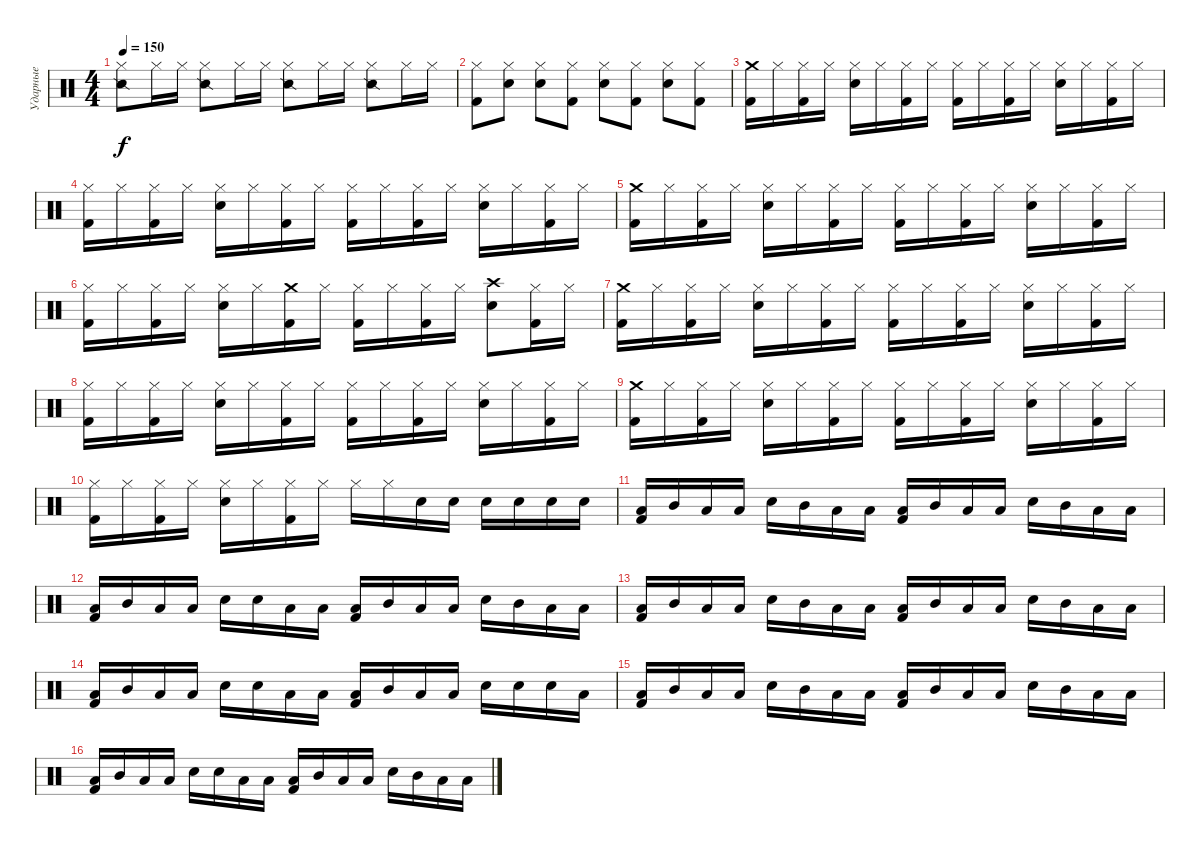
\track ("Ударные" "Ударные") {instrument percussion}
\staff {score}
\articulation defaults
\ts (4 4)
\tempo 150
\clef neutral
\ks c
("Hi-Hat (closed)" "Snare (side stick) 2").8{dy f} "Hi-Hat (closed)".16 "Hi-Hat (closed)".16 ("Hi-Hat (closed)" "Snare (side stick) 2").8 "Hi-Hat (closed)".16 "Hi-Hat (closed)".16 ("Hi-Hat (closed)" "Snare (side stick) 2").8 "Hi-Hat (closed)".16 "Hi-Hat (closed)".16 ("Hi-Hat (closed)" "Snare (side stick) 2").8 "Hi-Hat (closed)".16 "Hi-Hat (closed)".16 |
("Hi-Hat (closed)" "Kick (hit) 2").8 ("Hi-Hat (closed)" "Electric Snare (hit)").8 ("Hi-Hat (closed)" "Electric Snare (hit)").8 ("Hi-Hat (closed)" "Kick (hit) 2").8 ("Hi-Hat (closed)" "Electric Snare (hit)").8 ("Hi-Hat (closed)" "Kick (hit) 2").8 ("Hi-Hat (closed)" "Electric Snare (hit)").8 ("Hi-Hat (closed)" "Kick (hit) 2").8 |
("Crash medium (hit)" "Kick (hit) 2").16 "Hi-Hat (closed)".16 ("Hi-Hat (closed)" "Kick (hit) 2").16 "Hi-Hat (closed)".16 ("Hi-Hat (closed)" "Electric Snare (hit)").16 "Hi-Hat (closed)".16 ("Hi-Hat (closed)" "Kick (hit) 2").16 "Hi-Hat (closed)".16 ("Hi-Hat (closed)" "Kick (hit) 2").16 "Hi-Hat (closed)".16 ("Hi-Hat (closed)" "Kick (hit) 2").16 "Hi-Hat (closed)".16 ("Hi-Hat (closed)" "Electric Snare (hit)").16 "Hi-Hat (closed)".16 ("Hi-Hat (closed)" "Kick (hit) 2").16 "Hi-Hat (closed)".16 |
("Hi-Hat (closed)" "Kick (hit) 2").16 "Hi-Hat (closed)".16 ("Hi-Hat (closed)" "Kick (hit) 2").16 "Hi-Hat (closed)".16 ("Hi-Hat (closed)" "Electric Snare (hit)").16 "Hi-Hat (closed)".16 ("Hi-Hat (closed)" "Kick (hit) 2").16 "Hi-Hat (closed)".16 ("Hi-Hat (closed)" "Kick (hit) 2").16 "Hi-Hat (closed)".16 ("Hi-Hat (closed)" "Kick (hit) 2").16 "Hi-Hat (closed)".16 ("Hi-Hat (closed)" "Electric Snare (hit)").16 "Hi-Hat (closed)".16 ("Hi-Hat (closed)" "Kick (hit) 2").16 "Hi-Hat (closed)".16 |
("Crash medium (hit)" "Kick (hit) 2").16 "Hi-Hat (closed)".16 ("Hi-Hat (closed)" "Kick (hit) 2").16 "Hi-Hat (closed)".16 ("Hi-Hat (closed)" "Electric Snare (hit)").16 "Hi-Hat (closed)".16 ("Hi-Hat (closed)" "Kick (hit) 2").16 "Hi-Hat (closed)".16 ("Hi-Hat (closed)" "Kick (hit) 2").16 "Hi-Hat (closed)".16 ("Hi-Hat (closed)" "Kick (hit) 2").16 "Hi-Hat (closed)".16 ("Hi-Hat (closed)" "Electric Snare (hit)").16 "Hi-Hat (closed)".16 ("Hi-Hat (closed)" "Kick (hit) 2").16 "Hi-Hat (closed)".16 |
("Hi-Hat (closed)" "Kick (hit) 2").16 "Hi-Hat (closed)".16 ("Hi-Hat (closed)" "Kick (hit) 2").16 "Hi-Hat (closed)".16 ("Hi-Hat (closed)" "Electric Snare (hit)").16 "Hi-Hat (closed)".16 ("Crash medium (hit)" "Kick (hit) 2").16 "Hi-Hat (closed)".16 ("Hi-Hat (closed)" "Kick (hit) 2").16 "Hi-Hat (closed)".16 ("Hi-Hat (closed)" "Kick (hit) 2").16 "Hi-Hat (closed)".16 ("Crash high (hit)" "Electric Snare (hit)").8 ("Hi-Hat (closed)" "Kick (hit) 2").16 "Hi-Hat (closed)".16 |
("Crash medium (hit)" "Kick (hit) 2").16 "Hi-Hat (closed)".16 ("Hi-Hat (closed)" "Kick (hit) 2").16 "Hi-Hat (closed)".16 ("Hi-Hat (closed)" "Electric Snare (hit)").16 "Hi-Hat (closed)".16 ("Hi-Hat (closed)" "Kick (hit) 2").16 "Hi-Hat (closed)".16 ("Hi-Hat (closed)" "Kick (hit) 2").16 "Hi-Hat (closed)".16 ("Hi-Hat (closed)" "Kick (hit) 2").16 "Hi-Hat (closed)".16 ("Hi-Hat (closed)" "Electric Snare (hit)").16 "Hi-Hat (closed)".16 ("Hi-Hat (closed)" "Kick (hit) 2").16 "Hi-Hat (closed)".16 |
("Hi-Hat (closed)" "Kick (hit) 2").16 "Hi-Hat (closed)".16 ("Hi-Hat (closed)" "Kick (hit) 2").16 "Hi-Hat (closed)".16 ("Hi-Hat (closed)" "Electric Snare (hit)").16 "Hi-Hat (closed)".16 ("Hi-Hat (closed)" "Kick (hit) 2").16 "Hi-Hat (closed)".16 ("Hi-Hat (closed)" "Kick (hit) 2").16 "Hi-Hat (closed)".16 ("Hi-Hat (closed)" "Kick (hit) 2").16 "Hi-Hat (closed)".16 ("Hi-Hat (closed)" "Electric Snare (hit)").16 "Hi-Hat (closed)".16 ("Hi-Hat (closed)" "Kick (hit) 2").16 "Hi-Hat (closed)".16 |
("Crash medium (hit)" "Kick (hit) 2").16 "Hi-Hat (closed)".16 ("Hi-Hat (closed)" "Kick (hit) 2").16 "Hi-Hat (closed)".16 ("Hi-Hat (closed)" "Electric Snare (hit)").16 "Hi-Hat (closed)".16 ("Hi-Hat (closed)" "Kick (hit) 2").16 "Hi-Hat (closed)".16 ("Hi-Hat (closed)" "Kick (hit) 2").16 "Hi-Hat (closed)".16 ("Hi-Hat (closed)" "Kick (hit) 2").16 "Hi-Hat (closed)".16 ("Hi-Hat (closed)" "Electric Snare (hit)").16 "Hi-Hat (closed)".16 ("Hi-Hat (closed)" "Kick (hit) 2").16 "Hi-Hat (closed)".16 |
("Hi-Hat (closed)" "Kick (hit) 2").16 "Hi-Hat (closed)".16 ("Hi-Hat (closed)" "Kick (hit) 2").16 "Hi-Hat (closed)".16 ("Hi-Hat (closed)" "Electric Snare (hit)").16 "Hi-Hat (closed)".16 ("Hi-Hat (closed)" "Kick (hit) 2").16 "Hi-Hat (closed)".16 "Hi-Hat (closed)".16 "Hi-Hat (closed)".16 "Electric Snare (hit)".16 "Electric Snare (hit)".16 "Electric Snare (hit)".16 "Electric Snare (hit)".16 "Electric Snare (hit)".16 "Electric Snare (hit)".16 |
("Low Tom (hit)" "Kick (hit) 2").16 "Mid Tom (hit)".16 "Low Tom (hit)".16 "Low Tom (hit)".16 "Electric Snare (hit)".16 "Mid Tom (hit)".16 "Low Tom (hit)".16 "Low Tom (hit)".16 ("Low Tom (hit)" "Kick (hit) 2").16 "Mid Tom (hit)".16 "Low Tom (hit)".16 "Low Tom (hit)".16 "Electric Snare (hit)".16 "Mid Tom (hit)".16 "Low Tom (hit)".16 "Low Tom (hit)".16 |
("Low Tom (hit)" "Kick (hit) 2").16 "Mid Tom (hit)".16 "Low Tom (hit)".16 "Low Tom (hit)".16 "Electric Snare (hit)".16 "Electric Snare (hit)".16 "Low Tom (hit)".16 "Low Tom (hit)".16 ("Low Tom (hit)" "Kick (hit) 2").16 "Mid Tom (hit)".16 "Low Tom (hit)".16 "Low Tom (hit)".16 "Electric Snare (hit)".16 "Mid Tom (hit)".16 "Low Tom (hit)".16 "Low Tom (hit)".16 |
("Low Tom (hit)" "Kick (hit) 2").16 "Mid Tom (hit)".16 "Low Tom (hit)".16 "Low Tom (hit)".16 "Electric Snare (hit)".16 "Mid Tom (hit)".16 "Low Tom (hit)".16 "Low Tom (hit)".16 ("Low Tom (hit)" "Kick (hit) 2").16 "Mid Tom (hit)".16 "Low Tom (hit)".16 "Low Tom (hit)".16 "Electric Snare (hit)".16 "Mid Tom (hit)".16 "Low Tom (hit)".16 "Low Tom (hit)".16 |
("Low Tom (hit)" "Kick (hit) 2").16 "Mid Tom (hit)".16 "Low Tom (hit)".16 "Low Tom (hit)".16 "Electric Snare (hit)".16 "Electric Snare (hit)".16 "Low Tom (hit)".16 "Low Tom (hit)".16 ("Low Tom (hit)" "Kick (hit) 2").16 "Mid Tom (hit)".16 "Low Tom (hit)".16 "Low Tom (hit)".16 "Electric Snare (hit)".16 "Electric Snare (hit)".16 "Electric Snare (hit)".16 "Low Tom (hit)".16 |
("Low Tom (hit)" "Kick (hit) 2").16 "Mid Tom (hit)".16 "Low Tom (hit)".16 "Low Tom (hit)".16 "Electric Snare (hit)".16 "Mid Tom (hit)".16 "Low Tom (hit)".16 "Low Tom (hit)".16 ("Low Tom (hit)" "Kick (hit) 2").16 "Mid Tom (hit)".16 "Low Tom (hit)".16 "Low Tom (hit)".16 "Electric Snare (hit)".16 "Mid Tom (hit)".16 "Low Tom (hit)".16 "Low Tom (hit)".16 |
("Low Tom (hit)" "Kick (hit) 2").16 "Mid Tom (hit)".16 "Low Tom (hit)".16 "Low Tom (hit)".16 "Electric Snare (hit)".16 "Electric Snare (hit)".16 "Low Tom (hit)".16 "Low Tom (hit)".16 ("Low Tom (hit)" "Kick (hit) 2").16 "Mid Tom (hit)".16 "Low Tom (hit)".16 "Low Tom (hit)".16 "Electric Snare (hit)".16 "Mid Tom (hit)".16 "Low Tom (hit)".16 "Low Tom (hit)".16
